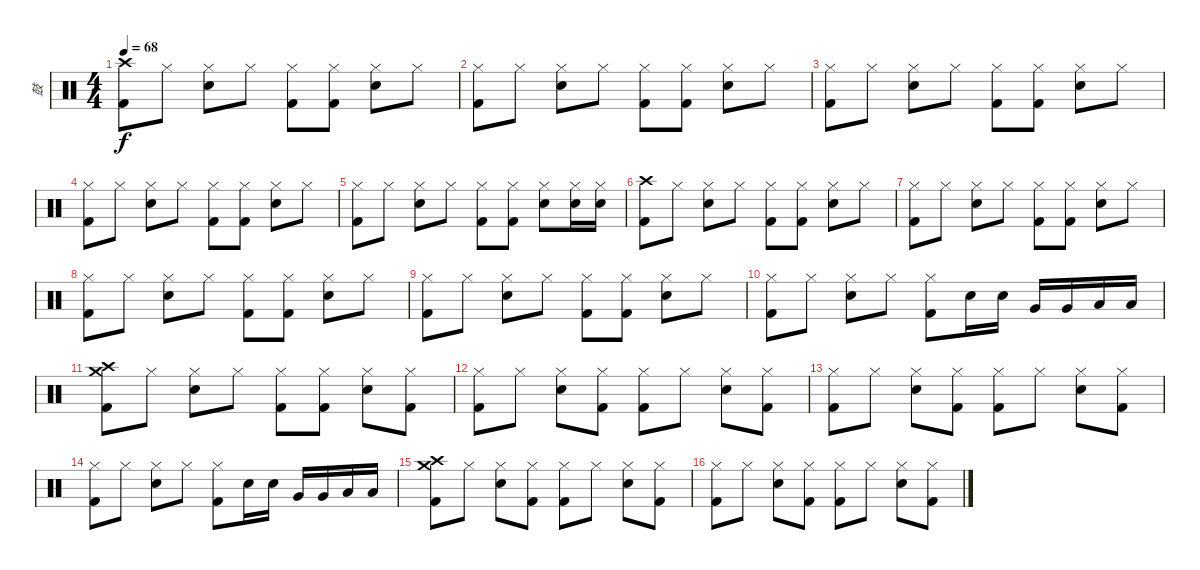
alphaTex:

\track ("鼓" "鼓") {instrument percussion}
\staff {score}
\articulation defaults
\ts (4 4)
\tempo 68
\clef neutral
\ks c
("Kick (hit) 2" "Crash high (hit)").8{dy f} "Hi-Hat (closed)".8 ("Snare (hit) 2" "Hi-Hat (closed)").8 "Hi-Hat (closed)".8 ("Kick (hit) 2" "Hi-Hat (closed)").8 ("Kick (hit) 2" "Hi-Hat (closed)").8 ("Snare (hit) 2" "Hi-Hat (closed)").8 "Hi-Hat (closed)".8 |
("Kick (hit) 2" "Hi-Hat (closed)").8 "Hi-Hat (closed)".8 ("Snare (hit) 2" "Hi-Hat (closed)").8 "Hi-Hat (closed)".8 ("Kick (hit) 2" "Hi-Hat (closed)").8 ("Kick (hit) 2" "Hi-Hat (closed)").8 ("Snare (hit) 2" "Hi-Hat (closed)").8 "Hi-Hat (closed)".8 |
("Kick (hit) 2" "Hi-Hat (closed)").8 "Hi-Hat (closed)".8 ("Snare (hit) 2" "Hi-Hat (closed)").8 "Hi-Hat (closed)".8 ("Kick (hit) 2" "Hi-Hat (closed)").8 ("Kick (hit) 2" "Hi-Hat (closed)").8 ("Snare (hit) 2" "Hi-Hat (closed)").8 "Hi-Hat (closed)".8 |
("Kick (hit) 2" "Hi-Hat (closed)").8 "Hi-Hat (closed)".8 ("Snare (hit) 2" "Hi-Hat (closed)").8 "Hi-Hat (closed)".8 ("Kick (hit) 2" "Hi-Hat (closed)").8 ("Kick (hit) 2" "Hi-Hat (closed)").8 ("Snare (hit) 2" "Hi-Hat (closed)").8 "Hi-Hat (closed)".8 |
("Kick (hit) 2" "Hi-Hat (closed)").8 "Hi-Hat (closed)".8 ("Snare (hit) 2" "Hi-Hat (closed)").8 "Hi-Hat (closed)".8 ("Kick (hit) 2" "Hi-Hat (closed)").8 ("Kick (hit) 2" "Hi-Hat (closed)").8 ("Electric Snare (hit)" "Hi-Hat (closed)").8 ("Electric Snare (hit)" "Hi-Hat (closed)").16 ("Electric Snare (hit)" "Hi-Hat (closed)").16 |
("Kick (hit) 2" "Crash high (hit)").8 "Hi-Hat (closed)".8 ("Snare (hit) 2" "Hi-Hat (closed)").8 "Hi-Hat (closed)".8 ("Kick (hit) 2" "Hi-Hat (closed)").8 ("Kick (hit) 2" "Hi-Hat (closed)").8 ("Snare (hit) 2" "Hi-Hat (closed)").8 "Hi-Hat (closed)".8 |
("Kick (hit) 2" "Hi-Hat (closed)").8 "Hi-Hat (closed)".8 ("Snare (hit) 2" "Hi-Hat (closed)").8 "Hi-Hat (closed)".8 ("Kick (hit) 2" "Hi-Hat (closed)").8 ("Kick (hit) 2" "Hi-Hat (closed)").8 ("Snare (hit) 2" "Hi-Hat (closed)").8 "Hi-Hat (closed)".8 |
("Kick (hit) 2" "Hi-Hat (closed)").8 "Hi-Hat (closed)".8 ("Snare (hit) 2" "Hi-Hat (closed)").8 "Hi-Hat (closed)".8 ("Kick (hit) 2" "Hi-Hat (closed)").8 ("Kick (hit) 2" "Hi-Hat (closed)").8 ("Snare (hit) 2" "Hi-Hat (closed)").8 "Hi-Hat (closed)".8 |
("Kick (hit) 2" "Hi-Hat (closed)").8 "Hi-Hat (closed)".8 ("Snare (hit) 2" "Hi-Hat (closed)").8 "Hi-Hat (closed)".8 ("Kick (hit) 2" "Hi-Hat (closed)").8 ("Kick (hit) 2" "Hi-Hat (closed)").8 ("Snare (hit) 2" "Hi-Hat (closed)").8 "Hi-Hat (closed)".8 |
("Kick (hit) 2" "Hi-Hat (closed)").8 "Hi-Hat (closed)".8 ("Snare (hit) 2" "Hi-Hat (closed)").8 "Hi-Hat (closed)".8 ("Kick (hit) 2" "Hi-Hat (closed)").8 "Electric Snare (hit)".16 "Electric Snare (hit)".16 "Very Low Tom (hit)".16 "Very Low Tom (hit)".16 "Low Tom (hit)".16 "Low Tom (hit)".16 |
("Crash medium (hit)" "Kick (hit) 2" "Crash high (hit)").8 "Hi-Hat (closed)".8 ("Snare (hit) 2" "Hi-Hat (closed)").8 "Hi-Hat (closed)".8 ("Kick (hit) 2" "Hi-Hat (closed)").8 ("Kick (hit) 2" "Hi-Hat (closed)").8 ("Snare (hit) 2" "Hi-Hat (closed)").8 ("Kick (hit) 2" "Hi-Hat (closed)").8 |
("Kick (hit) 2" "Hi-Hat (closed)").8 "Hi-Hat (closed)".8 ("Snare (hit) 2" "Hi-Hat (closed)").8 ("Kick (hit) 2" "Hi-Hat (closed)").8 ("Kick (hit) 2" "Hi-Hat (closed)").8 "Hi-Hat (closed)".8 ("Snare (hit) 2" "Hi-Hat (closed)").8 ("Kick (hit) 2" "Hi-Hat (closed)").8 |
("Kick (hit) 2" "Hi-Hat (closed)").8 "Hi-Hat (closed)".8 ("Snare (hit) 2" "Hi-Hat (closed)").8 ("Kick (hit) 2" "Hi-Hat (closed)").8 ("Kick (hit) 2" "Hi-Hat (closed)").8 "Hi-Hat (closed)".8 ("Snare (hit) 2" "Hi-Hat (closed)").8 ("Kick (hit) 2" "Hi-Hat (closed)").8 |
("Kick (hit) 2" "Hi-Hat (closed)").8 "Hi-Hat (closed)".8 ("Snare (hit) 2" "Hi-Hat (closed)").8 "Hi-Hat (closed)".8 ("Kick (hit) 2" "Hi-Hat (closed)").8 "Electric Snare (hit)".16 "Electric Snare (hit)".16 "Very Low Tom (hit)".16 "Very Low Tom (hit)".16 "Low Tom (hit)".16 "Low Tom (hit)".16 |
("Kick (hit) 2" "Crash medium (hit)" "Crash high (hit)").8 "Hi-Hat (closed)".8 ("Snare (hit) 2" "Hi-Hat (closed)").8 ("Kick (hit) 2" "Hi-Hat (closed)").8 ("Kick (hit) 2" "Hi-Hat (closed)").8 "Hi-Hat (closed)".8 ("Snare (hit) 2" "Hi-Hat (closed)").8 ("Kick (hit) 2" "Hi-Hat (closed)").8 |
("Kick (hit) 2" "Hi-Hat (closed)").8 "Hi-Hat (closed)".8 ("Snare (hit) 2" "Hi-Hat (closed)").8 ("Kick (hit) 2" "Hi-Hat (closed)").8 ("Kick (hit) 2" "Hi-Hat (closed)").8 "Hi-Hat (closed)".8 ("Snare (hit) 2" "Hi-Hat (closed)").8 ("Kick (hit) 2" "Hi-Hat (closed)").8
